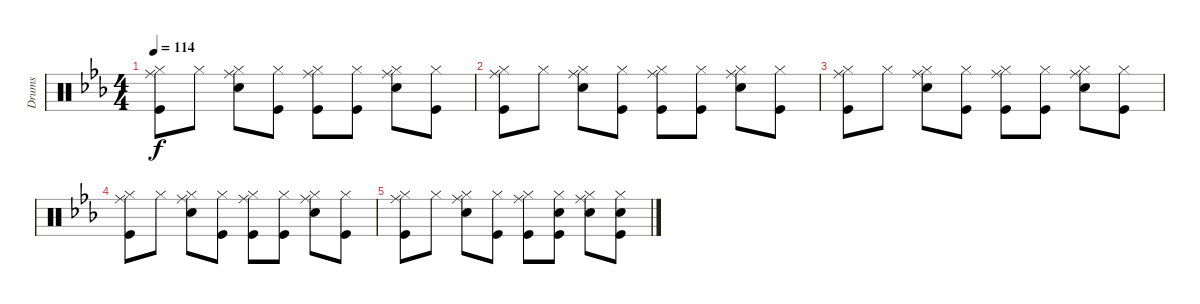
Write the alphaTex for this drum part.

\track ("Drums" "Drums") {instrument percussion}
\staff {score}
\articulation defaults
\ts (4 4)
\tempo 114
\clef neutral
\ks eb
("Hi-Hat (closed)" "Ride (middle)" "Kick (hit)").8{dy f} "Hi-Hat (closed)".8 ("Hi-Hat (closed)" "Ride (middle)" "Snare (hit) 2").8 ("Hi-Hat (closed)" "Kick (hit)").8 ("Hi-Hat (closed)" "Ride (middle)" "Kick (hit)").8 ("Hi-Hat (closed)" "Kick (hit)").8 ("Hi-Hat (closed)" "Ride (middle)" "Snare (hit) 2").8 ("Hi-Hat (closed)" "Kick (hit)").8 |
("Hi-Hat (closed)" "Ride (middle)" "Kick (hit)").8 "Hi-Hat (closed)".8 ("Hi-Hat (closed)" "Ride (middle)" "Snare (hit) 2").8 ("Hi-Hat (closed)" "Kick (hit)").8 ("Hi-Hat (closed)" "Ride (middle)" "Kick (hit)").8 ("Hi-Hat (closed)" "Kick (hit)").8 ("Hi-Hat (closed)" "Ride (middle)" "Snare (hit) 2").8 ("Hi-Hat (closed)" "Kick (hit)").8 |
("Hi-Hat (closed)" "Ride (middle)" "Kick (hit)").8 "Hi-Hat (closed)".8 ("Hi-Hat (closed)" "Ride (middle)" "Snare (hit) 2").8 ("Hi-Hat (closed)" "Kick (hit)").8 ("Hi-Hat (closed)" "Ride (middle)" "Kick (hit)").8 ("Hi-Hat (closed)" "Kick (hit)").8 ("Hi-Hat (closed)" "Ride (middle)" "Snare (hit) 2").8 ("Hi-Hat (closed)" "Kick (hit)").8 |
("Hi-Hat (closed)" "Ride (middle)" "Kick (hit)").8 "Hi-Hat (closed)".8 ("Hi-Hat (closed)" "Ride (middle)" "Snare (hit) 2").8 ("Hi-Hat (closed)" "Kick (hit)").8 ("Hi-Hat (closed)" "Ride (middle)" "Kick (hit)").8 ("Hi-Hat (closed)" "Kick (hit)").8 ("Hi-Hat (closed)" "Ride (middle)" "Snare (hit) 2").8 ("Hi-Hat (closed)" "Kick (hit)").8 |
("Hi-Hat (closed)" "Ride (middle)" "Kick (hit)").8 "Hi-Hat (closed)".8 ("Hi-Hat (closed)" "Ride (middle)" "Snare (hit) 2").8 ("Hi-Hat (closed)" "Kick (hit)").8 ("Hi-Hat (closed)" "Ride (middle)" "Kick (hit)").8 ("Hi-Hat (closed)" "Snare (hit) 2" "Kick (hit)").8 ("Hi-Hat (closed)" "Ride (middle)" "Snare (hit) 2").8 ("Hi-Hat (closed)" "Snare (hit) 2" "Kick (hit)").8
